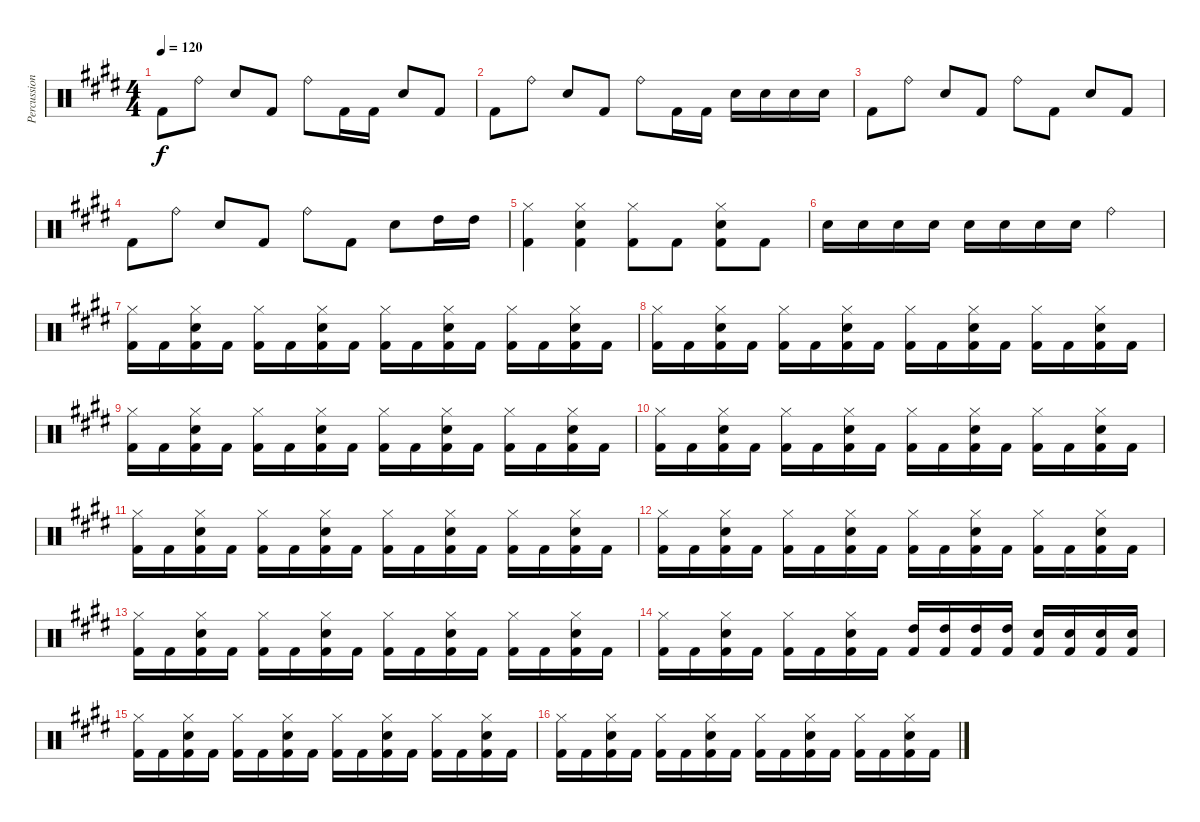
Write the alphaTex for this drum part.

\track ("Percussions" "Percussion") {instrument percussion}
\staff {score}
\articulation defaults
\ts (4 4)
\tempo 120
\clef neutral
\ks c#minor "Kick (hit) 2".8{dy f} "Ride (bell)".8 "Snare (hit) 2".8 "Kick (hit) 2".8 "Ride (bell)".8 "Kick (hit) 2".16 "Kick (hit) 2".16 "Snare (hit) 2".8 "Kick (hit) 2".8
|
"Kick (hit) 2".8 "Ride (bell)".8 "Snare (hit) 2".8 "Kick (hit) 2".8 "Ride (bell)".8 "Kick (hit) 2".16 "Kick (hit) 2".16 "Snare (hit) 2".16 "Snare (hit) 2".16 "Snare (hit) 2".16 "Snare (hit) 2".16 |
"Kick (hit) 2".8 "Ride (bell)".8 "Snare (hit) 2".8 "Kick (hit) 2".8 "Ride (bell)".8 "Kick (hit) 2".8 "Snare (hit) 2".8 "Kick (hit) 2".8 |
"Kick (hit) 2".8 "Ride (bell)".8 "Snare (hit) 2".8 "Kick (hit) 2".8 "Ride (bell)".8 "Kick (hit) 2".8 "Snare (hit) 2".8 "High Tom (hit)".16 "High Tom (hit)".16 |
("Hi-Hat (closed)" "Kick (hit) 2").4 ("Hi-Hat (closed)" "Snare (hit) 2" "Kick (hit) 2").4 ("Hi-Hat (closed)" "Kick (hit) 2").8 "Kick (hit) 2".8 ("Hi-Hat (closed)" "Snare (hit) 2" "Kick (hit) 2").8 "Kick (hit) 2".8 |
"Snare (hit) 2".16 "Snare (hit) 2".16 "Snare (hit) 2".16 "Snare (hit) 2".16 "Snare (hit) 2".16 "Snare (hit) 2".16 "Snare (hit) 2".16 "Snare (hit) 2".16 "Ride (bell)".4 |
("Hi-Hat (closed)" "Kick (hit) 2").16 "Kick (hit) 2".16 ("Hi-Hat (closed)" "Snare (hit) 2" "Kick (hit) 2").16 "Kick (hit) 2".16 ("Hi-Hat (closed)" "Kick (hit) 2").16 "Kick (hit) 2".16 ("Hi-Hat (closed)" "Snare (hit) 2" "Kick (hit) 2").16 "Kick (hit) 2".16 ("Hi-Hat (closed)" "Kick (hit) 2").16 "Kick (hit) 2".16 ("Hi-Hat (closed)" "Snare (hit) 2" "Kick (hit) 2").16 "Kick (hit) 2".16 ("Hi-Hat (closed)" "Kick (hit) 2").16 "Kick (hit) 2".16 ("Hi-Hat (closed)" "Snare (hit) 2" "Kick (hit) 2").16 "Kick (hit) 2".16 |
("Hi-Hat (closed)" "Kick (hit) 2").16 "Kick (hit) 2".16 ("Hi-Hat (closed)" "Snare (hit) 2" "Kick (hit) 2").16 "Kick (hit) 2".16 ("Hi-Hat (closed)" "Kick (hit) 2").16 "Kick (hit) 2".16 ("Hi-Hat (closed)" "Snare (hit) 2" "Kick (hit) 2").16 "Kick (hit) 2".16 ("Hi-Hat (closed)" "Kick (hit) 2").16 "Kick (hit) 2".16 ("Hi-Hat (closed)" "Snare (hit) 2" "Kick (hit) 2").16 "Kick (hit) 2".16 ("Hi-Hat (closed)" "Kick (hit) 2").16 "Kick (hit) 2".16 ("Hi-Hat (closed)" "Snare (hit) 2" "Kick (hit) 2").16 "Kick (hit) 2".16 |
("Hi-Hat (closed)" "Kick (hit) 2").16 "Kick (hit) 2".16 ("Hi-Hat (closed)" "Snare (hit) 2" "Kick (hit) 2").16 "Kick (hit) 2".16 ("Hi-Hat (closed)" "Kick (hit) 2").16 "Kick (hit) 2".16 ("Hi-Hat (closed)" "Snare (hit) 2" "Kick (hit) 2").16 "Kick (hit) 2".16 ("Hi-Hat (closed)" "Kick (hit) 2").16 "Kick (hit) 2".16 ("Hi-Hat (closed)" "Snare (hit) 2" "Kick (hit) 2").16 "Kick (hit) 2".16 ("Hi-Hat (closed)" "Kick (hit) 2").16 "Kick (hit) 2".16 ("Hi-Hat (closed)" "Snare (hit) 2" "Kick (hit) 2").16 "Kick (hit) 2".16 |
("Hi-Hat (closed)" "Kick (hit) 2").16 "Kick (hit) 2".16 ("Hi-Hat (closed)" "Snare (hit) 2" "Kick (hit) 2").16 "Kick (hit) 2".16 ("Hi-Hat (closed)" "Kick (hit) 2").16 "Kick (hit) 2".16 ("Hi-Hat (closed)" "Snare (hit) 2" "Kick (hit) 2").16 "Kick (hit) 2".16 ("Hi-Hat (closed)" "Kick (hit) 2").16 "Kick (hit) 2".16 ("Hi-Hat (closed)" "Snare (hit) 2" "Kick (hit) 2").16 "Kick (hit) 2".16 ("Hi-Hat (closed)" "Kick (hit) 2").16 "Kick (hit) 2".16 ("Hi-Hat (closed)" "Snare (hit) 2" "Kick (hit) 2").16 "Kick (hit) 2".16 |
("Hi-Hat (closed)" "Kick (hit) 2").16 "Kick (hit) 2".16 ("Hi-Hat (closed)" "Snare (hit) 2" "Kick (hit) 2").16 "Kick (hit) 2".16 ("Hi-Hat (closed)" "Kick (hit) 2").16 "Kick (hit) 2".16 ("Hi-Hat (closed)" "Snare (hit) 2" "Kick (hit) 2").16 "Kick (hit) 2".16 ("Hi-Hat (closed)" "Kick (hit) 2").16 "Kick (hit) 2".16 ("Hi-Hat (closed)" "Snare (hit) 2" "Kick (hit) 2").16 "Kick (hit) 2".16 ("Hi-Hat (closed)" "Kick (hit) 2").16 "Kick (hit) 2".16 ("Hi-Hat (closed)" "Snare (hit) 2" "Kick (hit) 2").16 "Kick (hit) 2".16 |
("Hi-Hat (closed)" "Kick (hit) 2").16 "Kick (hit) 2".16 ("Hi-Hat (closed)" "Snare (hit) 2" "Kick (hit) 2").16 "Kick (hit) 2".16 ("Hi-Hat (closed)" "Kick (hit) 2").16 "Kick (hit) 2".16 ("Hi-Hat (closed)" "Snare (hit) 2" "Kick (hit) 2").16 "Kick (hit) 2".16 ("Hi-Hat (closed)" "Kick (hit) 2").16 "Kick (hit) 2".16 ("Hi-Hat (closed)" "Snare (hit) 2" "Kick (hit) 2").16 "Kick (hit) 2".16 ("Hi-Hat (closed)" "Kick (hit) 2").16 "Kick (hit) 2".16 ("Hi-Hat (closed)" "Snare (hit) 2" "Kick (hit) 2").16 "Kick (hit) 2".16 |
("Hi-Hat (closed)" "Kick (hit) 2").16 "Kick (hit) 2".16 ("Hi-Hat (closed)" "Snare (hit) 2" "Kick (hit) 2").16 "Kick (hit) 2".16 ("Hi-Hat (closed)" "Kick (hit) 2").16 "Kick (hit) 2".16 ("Hi-Hat (closed)" "Snare (hit) 2" "Kick (hit) 2").16 "Kick (hit) 2".16 ("Hi-Hat (closed)" "Kick (hit) 2").16 "Kick (hit) 2".16 ("Hi-Hat (closed)" "Snare (hit) 2" "Kick (hit) 2").16 "Kick (hit) 2".16 ("Hi-Hat (closed)" "Kick (hit) 2").16 "Kick (hit) 2".16 ("Hi-Hat (closed)" "Snare (hit) 2" "Kick (hit) 2").16 "Kick (hit) 2".16 |
("Hi-Hat (closed)" "Kick (hit) 2").16 "Kick (hit) 2".16 ("Hi-Hat (closed)" "Snare (hit) 2" "Kick (hit) 2").16 "Kick (hit) 2".16 ("Hi-Hat (closed)" "Kick (hit) 2").16 "Kick (hit) 2".16 ("Hi-Hat (closed)" "Snare (hit) 2" "Kick (hit) 2").16 "Kick (hit) 2".16 ("High Tom (hit)" "Kick (hit) 2").16 ("High Tom (hit)" "Kick (hit) 2").16 ("High Tom (hit)" "Kick (hit) 2").16 ("High Tom (hit)" "Kick (hit) 2").16 ("Snare (hit) 2" "Kick (hit) 2").16 ("Snare (hit) 2" "Kick (hit) 2").16 ("Snare (hit) 2" "Kick (hit) 2").16 ("Snare (hit) 2" "Kick (hit) 2").16 |
("Hi-Hat (closed)" "Kick (hit) 2").16 "Kick (hit) 2".16 ("Hi-Hat (closed)" "Snare (hit) 2" "Kick (hit) 2").16 "Kick (hit) 2".16 ("Hi-Hat (closed)" "Kick (hit) 2").16 "Kick (hit) 2".16 ("Hi-Hat (closed)" "Snare (hit) 2" "Kick (hit) 2").16 "Kick (hit) 2".16 ("Hi-Hat (closed)" "Kick (hit) 2").16 "Kick (hit) 2".16 ("Hi-Hat (closed)" "Snare (hit) 2" "Kick (hit) 2").16 "Kick (hit) 2".16 ("Hi-Hat (closed)" "Kick (hit) 2").16 "Kick (hit) 2".16 ("Hi-Hat (closed)" "Snare (hit) 2" "Kick (hit) 2").16 "Kick (hit) 2".16 |
("Hi-Hat (closed)" "Kick (hit) 2").16 "Kick (hit) 2".16 ("Hi-Hat (closed)" "Snare (hit) 2" "Kick (hit) 2").16 "Kick (hit) 2".16 ("Hi-Hat (closed)" "Kick (hit) 2").16 "Kick (hit) 2".16 ("Hi-Hat (closed)" "Snare (hit) 2" "Kick (hit) 2").16 "Kick (hit) 2".16 ("Hi-Hat (closed)" "Kick (hit) 2").16 "Kick (hit) 2".16 ("Hi-Hat (closed)" "Snare (hit) 2" "Kick (hit) 2").16 "Kick (hit) 2".16 ("Hi-Hat (closed)" "Kick (hit) 2").16 "Kick (hit) 2".16 ("Hi-Hat (closed)" "Snare (hit) 2" "Kick (hit) 2").16 "Kick (hit) 2".16
